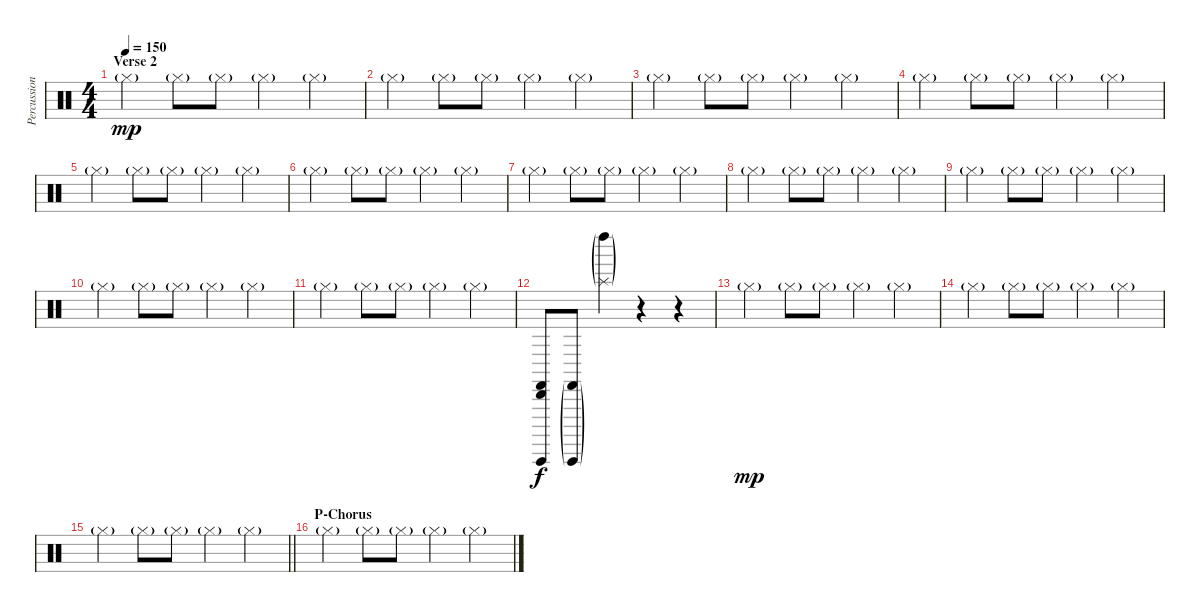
\track ("Percussion" "Percussion") {instrument percussion}
\staff {score}
\articulation defaults
\ts (4 4)
\section ("" "Verse 2")
\tempo 150
\clef neutral
\ks c "Hi-Hat (closed)"{g}.4{dy mp} "Hi-Hat (closed)"{g}.8 "Hi-Hat (closed)"{g}.8 "Hi-Hat (closed)"{g}.4 "Hi-Hat (closed)"{g}.4
|
"Hi-Hat (closed)"{g}.4 "Hi-Hat (closed)"{g}.8 "Hi-Hat (closed)"{g}.8 "Hi-Hat (closed)"{g}.4 "Hi-Hat (closed)"{g}.4 |
"Hi-Hat (closed)"{g}.4 "Hi-Hat (closed)"{g}.8 "Hi-Hat (closed)"{g}.8 "Hi-Hat (closed)"{g}.4 "Hi-Hat (closed)"{g}.4 |
"Hi-Hat (closed)"{g}.4 "Hi-Hat (closed)"{g}.8 "Hi-Hat (closed)"{g}.8 "Hi-Hat (closed)"{g}.4 "Hi-Hat (closed)"{g}.4 |
"Hi-Hat (closed)"{g}.4 "Hi-Hat (closed)"{g}.8 "Hi-Hat (closed)"{g}.8 "Hi-Hat (closed)"{g}.4 "Hi-Hat (closed)"{g}.4 |
"Hi-Hat (closed)"{g}.4 "Hi-Hat (closed)"{g}.8 "Hi-Hat (closed)"{g}.8 "Hi-Hat (closed)"{g}.4 "Hi-Hat (closed)"{g}.4 |
"Hi-Hat (closed)"{g}.4 "Hi-Hat (closed)"{g}.8 "Hi-Hat (closed)"{g}.8 "Hi-Hat (closed)"{g}.4 "Hi-Hat (closed)"{g}.4 |
"Hi-Hat (closed)"{g}.4 "Hi-Hat (closed)"{g}.8 "Hi-Hat (closed)"{g}.8 "Hi-Hat (closed)"{g}.4 "Hi-Hat (closed)"{g}.4 |
"Hi-Hat (closed)"{g}.4 "Hi-Hat (closed)"{g}.8 "Hi-Hat (closed)"{g}.8 "Hi-Hat (closed)"{g}.4 "Hi-Hat (closed)"{g}.4 |
"Hi-Hat (closed)"{g}.4 "Hi-Hat (closed)"{g}.8 "Hi-Hat (closed)"{g}.8 "Hi-Hat (closed)"{g}.4 "Hi-Hat (closed)"{g}.4 |
"Hi-Hat (closed)"{g}.4 "Hi-Hat (closed)"{g}.8 "Hi-Hat (closed)"{g}.8 "Hi-Hat (closed)"{g}.4 "Hi-Hat (closed)"{g}.4 |
("Cabasa (hit)" "Guiro (hit)" "Castanets (hit)").8{dy f} ("Guiro (hit)"{g} "Castanets (hit)"{g}).8 ("Left Maraca (hit)"{g} "Splash (hit)"{g}).4 r.4 r.4 |
"Hi-Hat (closed)"{g}.4{dy mp} "Hi-Hat (closed)"{g}.8 "Hi-Hat (closed)"{g}.8 "Hi-Hat (closed)"{g}.4 "Hi-Hat (closed)"{g}.4 |
"Hi-Hat (closed)"{g}.4 "Hi-Hat (closed)"{g}.8 "Hi-Hat (closed)"{g}.8 "Hi-Hat (closed)"{g}.4 "Hi-Hat (closed)"{g}.4 |
\barLineRight lightlight "Hi-Hat (closed)"{g}.4 "Hi-Hat (closed)"{g}.8 "Hi-Hat (closed)"{g}.8 "Hi-Hat (closed)"{g}.4 "Hi-Hat (closed)"{g}.4
|
\section ("" "P-Chorus")
"Hi-Hat (closed)"{g}.4 "Hi-Hat (closed)"{g}.8 "Hi-Hat (closed)"{g}.8 "Hi-Hat (closed)"{g}.4 "Hi-Hat (closed)"{g}.4
